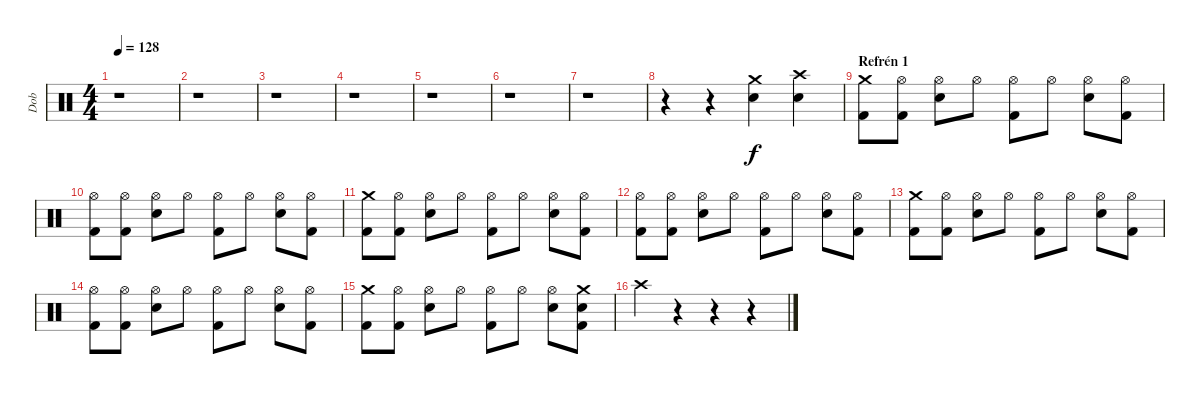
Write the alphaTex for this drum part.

\track ("Dob" "Dob") {instrument percussion}
\staff {score}
\articulation defaults
\ts (4 4)
\tempo 128
\clef neutral
\ks c
r.1{dy f} |
r.1 |
r.1 |
r.1 |
r.1 |
r.1 |
r.1 |
r.4 r.4 ("Crash medium (hit)" "Snare (hit) 2").4 ("Crash high (hit)" "Snare (hit) 2").4 |
\section ("" "Refrén 1")
("Crash medium (hit)" "Kick (hit) 2").8 ("Hi-Hat (open)" "Kick (hit) 2").8 ("Hi-Hat (open)" "Snare (hit) 2").8 "Hi-Hat (open)".8 ("Hi-Hat (open)" "Kick (hit) 2").8 "Hi-Hat (open)".8 ("Hi-Hat (open)" "Snare (hit) 2").8 ("Hi-Hat (open)" "Kick (hit) 2").8 |
("Hi-Hat (open)" "Kick (hit) 2").8 ("Hi-Hat (open)" "Kick (hit) 2").8 ("Hi-Hat (open)" "Snare (hit) 2").8 "Hi-Hat (open)".8 ("Hi-Hat (open)" "Kick (hit) 2").8 "Hi-Hat (open)".8 ("Hi-Hat (open)" "Snare (hit) 2").8 ("Hi-Hat (open)" "Kick (hit) 2").8 |
("Crash medium (hit)" "Kick (hit) 2").8 ("Hi-Hat (open)" "Kick (hit) 2").8 ("Hi-Hat (open)" "Snare (hit) 2").8 "Hi-Hat (open)".8 ("Hi-Hat (open)" "Kick (hit) 2").8 "Hi-Hat (open)".8 ("Hi-Hat (open)" "Snare (hit) 2").8 ("Hi-Hat (open)" "Kick (hit) 2").8 |
("Hi-Hat (open)" "Kick (hit) 2").8 ("Hi-Hat (open)" "Kick (hit) 2").8 ("Hi-Hat (open)" "Snare (hit) 2").8 "Hi-Hat (open)".8 ("Hi-Hat (open)" "Kick (hit) 2").8 "Hi-Hat (open)".8 ("Hi-Hat (open)" "Snare (hit) 2").8 ("Hi-Hat (open)" "Kick (hit) 2").8 |
("Crash medium (hit)" "Kick (hit) 2").8 ("Hi-Hat (open)" "Kick (hit) 2").8 ("Hi-Hat (open)" "Snare (hit) 2").8 "Hi-Hat (open)".8 ("Hi-Hat (open)" "Kick (hit) 2").8 "Hi-Hat (open)".8 ("Hi-Hat (open)" "Snare (hit) 2").8 ("Hi-Hat (open)" "Kick (hit) 2").8 |
("Hi-Hat (open)" "Kick (hit) 2").8 ("Hi-Hat (open)" "Kick (hit) 2").8 ("Hi-Hat (open)" "Snare (hit) 2").8 "Hi-Hat (open)".8 ("Hi-Hat (open)" "Kick (hit) 2").8 "Hi-Hat (open)".8 ("Hi-Hat (open)" "Snare (hit) 2").8 ("Hi-Hat (open)" "Kick (hit) 2").8 |
("Crash medium (hit)" "Kick (hit) 2").8 ("Hi-Hat (open)" "Kick (hit) 2").8 ("Hi-Hat (open)" "Snare (hit) 2").8 "Hi-Hat (open)".8 ("Hi-Hat (open)" "Kick (hit) 2").8 "Hi-Hat (open)".8 ("Hi-Hat (open)" "Snare (hit) 2").8 ("Crash medium (hit)" "Snare (hit) 2" "Kick (hit) 2").8 |
"Crash high (hit)".4 r.4 r.4 r.4
